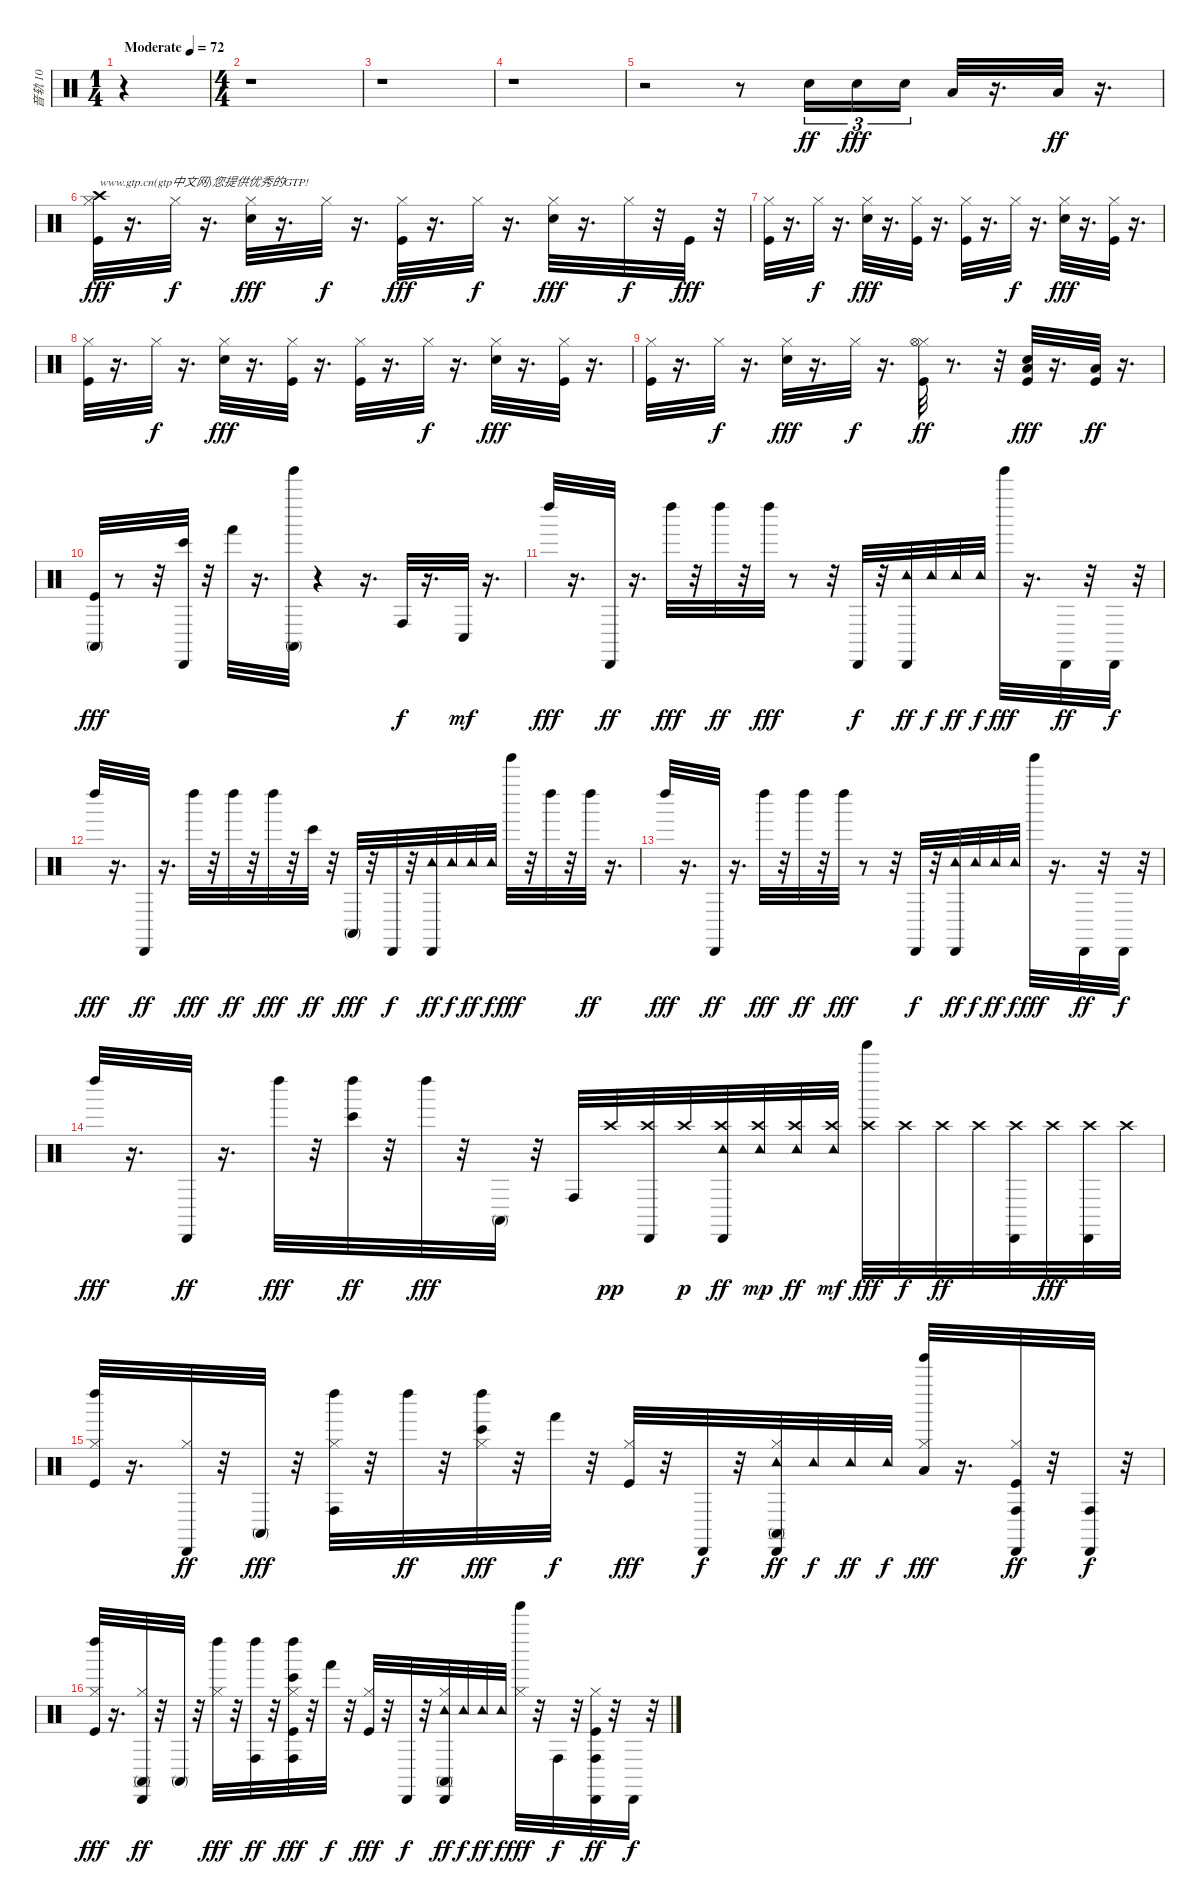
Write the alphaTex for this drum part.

\track ("音轨 10" "音轨 10") {instrument percussion}
\staff {score}
\articulation defaults
\ts (1 4)
\tempo (72 "Moderate")
\clef neutral
\ks c
r.4{dy ff} |
\ts (4 4)
r.1 |
r.1 |
r.1 |
r.2 r.8 "Electric Snare (hit)".16{tu (3 2)} "Electric Snare (hit)".16{tu (3 2) dy fff} "Electric Snare (hit)".16{tu (3 2)} "Low Tom (hit)".32 r.16{d} "Low Tom (hit)".32{dy ff} r.16{d} |
("Kick (hit)" "Hi-Hat (closed)" "Crash high (hit)").32{txt "www.gtp.cn(gtp中文网)您提供优秀的GTP!" dy fff} r.16{d} "Hi-Hat (closed)".32{dy f} r.16{d} ("Electric Snare (hit)" "Hi-Hat (closed)").32{dy fff} r.16{d} "Hi-Hat (closed)".32{dy f} r.16{d} ("Kick (hit)" "Hi-Hat (closed)").32{dy fff} r.16{d} "Hi-Hat (closed)".32{dy f} r.16{d} ("Electric Snare (hit)" "Hi-Hat (closed)").32{dy fff} r.16{d} "Hi-Hat (closed)".32{dy f} r.32 "Kick (hit)".32{dy fff} r.32 |
("Kick (hit)" "Hi-Hat (closed)").32 r.16{d} "Hi-Hat (closed)".32{dy f} r.16{d} ("Electric Snare (hit)" "Hi-Hat (closed)").32{dy fff} r.16{d} ("Kick (hit)" "Hi-Hat (closed)").32 r.16{d} ("Kick (hit)" "Hi-Hat (closed)").32 r.16{d} "Hi-Hat (closed)".32{dy f} r.16{d} ("Electric Snare (hit)" "Hi-Hat (closed)").32{dy fff} r.16{d} ("Kick (hit)" "Hi-Hat (closed)").32 r.16{d} |
("Kick (hit)" "Hi-Hat (closed)").32 r.16{d} "Hi-Hat (closed)".32{dy f} r.16{d} ("Electric Snare (hit)" "Hi-Hat (closed)").32{dy fff} r.16{d} ("Kick (hit)" "Hi-Hat (closed)").32 r.16{d} ("Kick (hit)" "Hi-Hat (closed)").32 r.16{d} "Hi-Hat (closed)".32{dy f} r.16{d} ("Electric Snare (hit)" "Hi-Hat (closed)").32{dy fff} r.16{d} ("Kick (hit)" "Hi-Hat (closed)").32 r.16{d} |
("Kick (hit)" "Hi-Hat (closed)").32 r.16{d} "Hi-Hat (closed)".32{dy f} r.16{d} ("Electric Snare (hit)" "Hi-Hat (closed)").32{dy fff} r.16{d} "Hi-Hat (closed)".32{dy f} r.16{d} ("Kick (hit)" "Hi-Hat (closed)" "Hi-Hat (open)").32{dy ff} r.8{d} r.32 ("Kick (hit)" "Electric Snare (hit)" "Low Tom (hit)").32{dy fff} r.16{d} ("Kick (hit)" "Low Tom (hit)").32{dy ff} r.16{d} |
("Kick (hit)" "Conga high (mute)").32{dy fff} r.8 r.32 ("Bongo High (hit)" "Cabasa (hit)").32 r.32 "Hand (hit)".32 r.16{d} ("Tinkle Bell (hit)" "Conga high (mute)").32 r.4 r.16{d} "Conga high (hit)".32{dy f} r.16{d} "Conga low (hit)".32{dy mf} r.16{d} |
"Left Maraca (hit)".32{dy fff} r.16{d} "Cabasa (hit)".32{dy ff} r.16{d} "Left Maraca (hit)".32{dy fff} r.32 "Left Maraca (hit)".32{dy ff} r.32 "Left Maraca (hit)".32{dy fff} r.8 r.32 "Cabasa (hit)".32{dy f} r.32 ("Tambourine (hit)" "Cabasa (hit)").32{dy ff} "Tambourine (hit)".32{dy f} "Tambourine (hit)".32{dy ff} "Tambourine (hit)".32{dy f} "Tinkle Bell (hit)".32{dy fff} r.16{d} "Cabasa (hit)".32{dy ff} r.32 "Cabasa (hit)".32{dy f} r.32 |
"Left Maraca (hit)".32{dy fff} r.16{d} "Cabasa (hit)".32{dy ff} r.16{d} "Left Maraca (hit)".32{dy fff} r.32 "Left Maraca (hit)".32{dy ff} r.32 "Left Maraca (hit)".32{dy fff} r.32 "Bongo High (hit)".32{dy ff} r.32 "Conga high (mute)".32{dy fff} r.32 "Cabasa (hit)".32{dy f} r.32 ("Tambourine (hit)" "Cabasa (hit)").32{dy ff} "Tambourine (hit)".32{dy f} "Tambourine (hit)".32{dy ff} "Tambourine (hit)".32{dy f} "Tinkle Bell (hit)".32{dy fff} r.32 "Left Maraca (hit)".32 r.32 "Left Maraca (hit)".32{dy ff} r.16{d} |
"Left Maraca (hit)".32{dy fff} r.16{d} "Cabasa (hit)".32{dy ff} r.16{d} "Left Maraca (hit)".32{dy fff} r.32 "Left Maraca (hit)".32{dy ff} r.32 "Left Maraca (hit)".32{dy fff} r.8 r.32 "Cabasa (hit)".32{dy f} r.32 ("Tambourine (hit)" "Cabasa (hit)").32{dy ff} "Tambourine (hit)".32{dy f} "Tambourine (hit)".32{dy ff} "Tambourine (hit)".32{dy f} "Tinkle Bell (hit)".32{dy fff} r.16{d} "Cabasa (hit)".32{dy ff} r.32 "Cabasa (hit)".32{dy f} r.32 |
"Left Maraca (hit)".32{dy fff} r.16{d} "Cabasa (hit)".32{dy ff} r.16{d} "Left Maraca (hit)".32{dy fff} r.32 ("Bongo High (hit)" "Left Maraca (hit)").32{dy ff} r.32 "Left Maraca (hit)".32{dy fff} r.32 "Conga high (mute)".32 r.32 "Conga high (hit)".32 "Crash high (hit)".32{dy pp} ("Crash high (hit)" "Cabasa (hit)").32 "Crash high (hit)".32{dy p} ("Crash high (hit)" "Tambourine (hit)" "Cabasa (hit)").32{dy ff} ("Crash high (hit)" "Tambourine (hit)").32{dy mp} ("Crash high (hit)" "Tambourine (hit)").32{dy ff} ("Crash high (hit)" "Tambourine (hit)").32{dy mf} ("Crash high (hit)" "Tinkle Bell (hit)").32{dy fff} "Crash high (hit)".32{dy f} "Crash high (hit)".32{dy ff} "Crash high (hit)".32 ("Crash high (hit)" "Cabasa (hit)").32 "Crash high (hit)".32{dy fff} ("Crash high (hit)" "Cabasa (hit)").32 "Crash high (hit)".32 |
("Kick (hit)" "Hi-Hat (closed)" "Left Maraca (hit)").32 r.16{d} ("Hi-Hat (closed)" "Cabasa (hit)").32{dy ff} r.32 "Conga high (mute)".32{dy fff} r.32 ("Hi-Hat (closed)" "Conga high (hit)" "Left Maraca (hit)").32 r.32 "Left Maraca (hit)".32{dy ff} r.32 ("Hi-Hat (closed)" "Bongo High (hit)" "Left Maraca (hit)").32{dy fff} r.32 "Hand (hit)".32{dy f} r.32 ("Kick (hit)" "Hi-Hat (closed)").32{dy fff} r.32 "Cabasa (hit)".32{dy f} r.32 ("Hi-Hat (closed)" "Tambourine (hit)" "Conga high (mute)" "Cabasa (hit)").32{dy ff} "Tambourine (hit)".32{dy f} "Tambourine (hit)".32{dy ff} "Tambourine (hit)".32{dy f} ("Hi-Hat (closed)" "Low Floor Tom (hit)" "Tinkle Bell (hit)").32{dy fff} r.16{d} ("Kick (hit)" "Hi-Hat (closed)" "Conga high (hit)" "Cabasa (hit)").32{dy ff} r.32 ("Conga high (hit)" "Cabasa (hit)").32{dy f} r.32 |
("Kick (hit)" "Hi-Hat (closed)" "Left Maraca (hit)").32{dy fff} r.16{d} ("Hi-Hat (closed)" "Conga high (mute)" "Cabasa (hit)").32{dy ff} r.32 "Conga high (mute)".32 r.32 ("Hi-Hat (closed)" "Left Maraca (hit)").32{dy fff} r.32 ("Conga high (hit)" "Left Maraca (hit)").32{dy ff} r.32 ("Kick (hit)" "Hi-Hat (closed)" "Bongo High (hit)" "Conga high (hit)" "Left Maraca (hit)").32{dy fff} r.32 "Hand (hit)".32{dy f} r.32 ("Kick (hit)" "Hi-Hat (closed)").32{dy fff} r.32 "Cabasa (hit)".32{dy f} r.32 ("Hi-Hat (closed)" "Tambourine (hit)" "Conga high (mute)" "Cabasa (hit)").32{dy ff} "Tambourine (hit)".32{dy f} "Tambourine (hit)".32{dy ff} "Tambourine (hit)".32{dy f} ("Hi-Hat (closed)" "Tinkle Bell (hit)").32{dy fff} r.32 "Conga high (hit)".32{dy f} r.32 ("Kick (hit)" "Hi-Hat (closed)" "Conga high (hit)" "Cabasa (hit)").32{dy ff} r.32 "Cabasa (hit)".32{dy f} r.32
